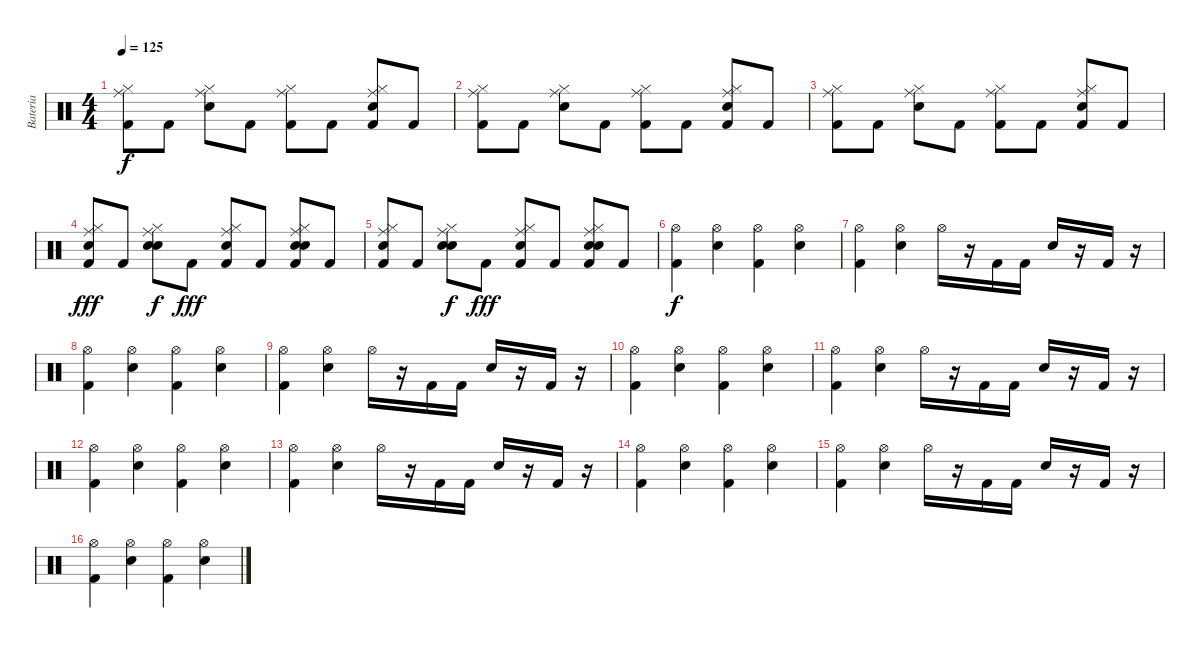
\track ("Bateria" "Bateria") {instrument percussion}
\staff {score}
\articulation defaults
\ts (4 4)
\tempo 125
\clef neutral
\ks c
("Kick (hit) 2" "Hi-Hat (closed)" "Ride (middle)").8{dy f} "Kick (hit) 2".8 ("Snare (hit) 2" "Hi-Hat (closed)" "Ride (middle)").8 "Kick (hit) 2".8 ("Kick (hit) 2" "Hi-Hat (closed)" "Ride (middle)").8 "Kick (hit) 2".8 ("Kick (hit) 2" "Snare (hit) 2" "Hi-Hat (closed)" "Ride (middle)").8 "Kick (hit) 2".8 |
("Kick (hit) 2" "Hi-Hat (closed)" "Ride (middle)").8 "Kick (hit) 2".8 ("Snare (hit) 2" "Hi-Hat (closed)" "Ride (middle)").8 "Kick (hit) 2".8 ("Kick (hit) 2" "Hi-Hat (closed)" "Ride (middle)").8 "Kick (hit) 2".8 ("Kick (hit) 2" "Snare (hit) 2" "Hi-Hat (closed)" "Ride (middle)").8 "Kick (hit) 2".8 |
("Kick (hit) 2" "Hi-Hat (closed)" "Ride (middle)").8 "Kick (hit) 2".8 ("Snare (hit) 2" "Hi-Hat (closed)" "Ride (middle)").8 "Kick (hit) 2".8 ("Kick (hit) 2" "Hi-Hat (closed)" "Ride (middle)").8 "Kick (hit) 2".8 ("Kick (hit) 2" "Snare (hit) 2" "Hi-Hat (closed)" "Ride (middle)").8 "Kick (hit) 2".8 |
("Kick (hit) 2" "Hi-Hat (closed)" "Ride (middle)" "Snare (hit) 2").8{dy fff} "Kick (hit) 2".8 ("Snare (hit) 2" "Hi-Hat (closed)" "Ride (middle)" "Snare (hit) 2").8{dy f} "Kick (hit) 2".8{dy fff} ("Kick (hit) 2" "Hi-Hat (closed)" "Ride (middle)" "Snare (hit) 2").8 "Kick (hit) 2".8 ("Kick (hit) 2" "Snare (hit) 2" "Hi-Hat (closed)" "Ride (middle)" "Snare (hit) 2").8 "Kick (hit) 2".8 |
("Kick (hit) 2" "Hi-Hat (closed)" "Ride (middle)" "Snare (hit) 2").8 "Kick (hit) 2".8 ("Snare (hit) 2" "Hi-Hat (closed)" "Ride (middle)" "Snare (hit) 2").8{dy f} "Kick (hit) 2".8{dy fff} ("Kick (hit) 2" "Hi-Hat (closed)" "Ride (middle)" "Snare (hit) 2").8 "Kick (hit) 2".8 ("Kick (hit) 2" "Snare (hit) 2" "Hi-Hat (closed)" "Ride (middle)" "Snare (hit) 2").8 "Kick (hit) 2".8 |
("Hi-Hat (open)" "Kick (hit) 2").4{dy f} ("Hi-Hat (open)" "Snare (hit) 2").4 ("Hi-Hat (open)" "Kick (hit) 2").4 ("Hi-Hat (open)" "Snare (hit) 2").4 |
("Hi-Hat (open)" "Kick (hit) 2").4 ("Hi-Hat (open)" "Snare (hit) 2").4 "Hi-Hat (open)".16 r.16 "Kick (hit) 2".16 "Kick (hit) 2".16 "Snare (hit) 2".16 r.16 "Kick (hit) 2".16 r.16 |
("Hi-Hat (open)" "Kick (hit) 2").4 ("Hi-Hat (open)" "Snare (hit) 2").4 ("Hi-Hat (open)" "Kick (hit) 2").4 ("Hi-Hat (open)" "Snare (hit) 2").4 |
("Hi-Hat (open)" "Kick (hit) 2").4 ("Hi-Hat (open)" "Snare (hit) 2").4 "Hi-Hat (open)".16 r.16 "Kick (hit) 2".16 "Kick (hit) 2".16 "Snare (hit) 2".16 r.16 "Kick (hit) 2".16 r.16 |
("Hi-Hat (open)" "Kick (hit) 2").4 ("Hi-Hat (open)" "Snare (hit) 2").4 ("Hi-Hat (open)" "Kick (hit) 2").4 ("Hi-Hat (open)" "Snare (hit) 2").4 |
("Hi-Hat (open)" "Kick (hit) 2").4 ("Hi-Hat (open)" "Snare (hit) 2").4 "Hi-Hat (open)".16 r.16 "Kick (hit) 2".16 "Kick (hit) 2".16 "Snare (hit) 2".16 r.16 "Kick (hit) 2".16 r.16 |
("Hi-Hat (open)" "Kick (hit) 2").4 ("Hi-Hat (open)" "Snare (hit) 2").4 ("Hi-Hat (open)" "Kick (hit) 2").4 ("Hi-Hat (open)" "Snare (hit) 2").4 |
("Hi-Hat (open)" "Kick (hit) 2").4 ("Hi-Hat (open)" "Snare (hit) 2").4 "Hi-Hat (open)".16 r.16 "Kick (hit) 2".16 "Kick (hit) 2".16 "Snare (hit) 2".16 r.16 "Kick (hit) 2".16 r.16 |
("Hi-Hat (open)" "Kick (hit) 2").4 ("Hi-Hat (open)" "Snare (hit) 2").4 ("Hi-Hat (open)" "Kick (hit) 2").4 ("Hi-Hat (open)" "Snare (hit) 2").4 |
("Hi-Hat (open)" "Kick (hit) 2").4 ("Hi-Hat (open)" "Snare (hit) 2").4 "Hi-Hat (open)".16 r.16 "Kick (hit) 2".16 "Kick (hit) 2".16 "Snare (hit) 2".16 r.16 "Kick (hit) 2".16 r.16 |
("Hi-Hat (open)" "Kick (hit) 2").4 ("Hi-Hat (open)" "Snare (hit) 2").4 ("Hi-Hat (open)" "Kick (hit) 2").4 ("Hi-Hat (open)" "Snare (hit) 2").4
